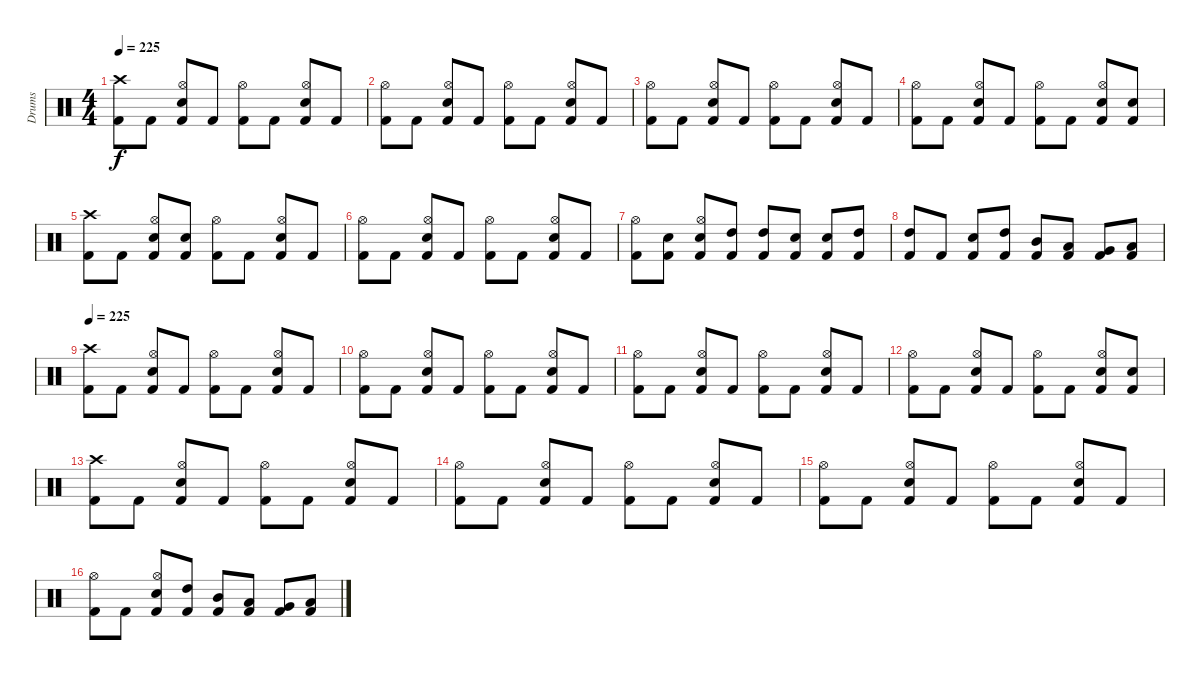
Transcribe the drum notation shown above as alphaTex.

\track ("Drums" "Drums") {instrument percussion}
\staff {score}
\articulation defaults
\ts (4 4)
\tempo 225
\clef neutral
\ks c
("Crash high (hit)" "Kick (hit) 2").8{dy f} "Kick (hit) 2".8 ("Hi-Hat (open)" "Electric Snare (hit)" "Kick (hit) 2").8 "Kick (hit) 2".8 ("Hi-Hat (open)" "Kick (hit) 2").8 "Kick (hit) 2".8 ("Hi-Hat (open)" "Electric Snare (hit)" "Kick (hit) 2").8 "Kick (hit) 2".8 |
("Hi-Hat (open)" "Kick (hit) 2").8 "Kick (hit) 2".8 ("Hi-Hat (open)" "Electric Snare (hit)" "Kick (hit) 2").8 "Kick (hit) 2".8 ("Hi-Hat (open)" "Kick (hit) 2").8 "Kick (hit) 2".8 ("Hi-Hat (open)" "Electric Snare (hit)" "Kick (hit) 2").8 "Kick (hit) 2".8 |
("Hi-Hat (open)" "Kick (hit) 2").8 "Kick (hit) 2".8 ("Hi-Hat (open)" "Electric Snare (hit)" "Kick (hit) 2").8 "Kick (hit) 2".8 ("Hi-Hat (open)" "Kick (hit) 2").8 "Kick (hit) 2".8 ("Hi-Hat (open)" "Electric Snare (hit)" "Kick (hit) 2").8 "Kick (hit) 2".8 |
("Hi-Hat (open)" "Kick (hit) 2").8 "Kick (hit) 2".8 ("Hi-Hat (open)" "Electric Snare (hit)" "Kick (hit) 2").8 "Kick (hit) 2".8 ("Hi-Hat (open)" "Kick (hit) 2").8 "Kick (hit) 2".8 ("Hi-Hat (open)" "Electric Snare (hit)" "Kick (hit) 2").8 ("Electric Snare (hit)" "Kick (hit) 2").8 |
("Crash high (hit)" "Kick (hit) 2").8 "Kick (hit) 2".8 ("Hi-Hat (open)" "Electric Snare (hit)" "Kick (hit) 2").8 ("Electric Snare (hit)" "Kick (hit) 2").8 ("Hi-Hat (open)" "Kick (hit) 2").8 "Kick (hit) 2".8 ("Hi-Hat (open)" "Electric Snare (hit)" "Kick (hit) 2").8 "Kick (hit) 2".8 |
("Hi-Hat (open)" "Kick (hit) 2").8 "Kick (hit) 2".8 ("Hi-Hat (open)" "Electric Snare (hit)" "Kick (hit) 2").8 "Kick (hit) 2".8 ("Hi-Hat (open)" "Kick (hit) 2").8 "Kick (hit) 2".8 ("Hi-Hat (open)" "Electric Snare (hit)" "Kick (hit) 2").8 "Kick (hit) 2".8 |
("Hi-Hat (open)" "Kick (hit) 2").8 ("Electric Snare (hit)" "Kick (hit) 2").8 ("Hi-Hat (open)" "Electric Snare (hit)" "Kick (hit) 2").8 ("High Tom (hit)" "Kick (hit) 2").8 ("High Tom (hit)" "Kick (hit) 2").8 ("Electric Snare (hit)" "Kick (hit) 2").8 ("Electric Snare (hit)" "Kick (hit) 2").8 ("High Tom (hit)" "Kick (hit) 2").8 |
("High Tom (hit)" "Kick (hit) 2").8 "Kick (hit) 2".8 ("Electric Snare (hit)" "Kick (hit) 2").8 ("High Tom (hit)" "Kick (hit) 2").8 ("Mid Tom (hit)" "Kick (hit) 2").8 ("Low Tom (hit)" "Kick (hit) 2").8 ("Very Low Tom (hit)" "Kick (hit) 2").8 ("Low Floor Tom (hit)" "Kick (hit) 2").8 |
\tempo 225
("Crash high (hit)" "Kick (hit) 2").8 "Kick (hit) 2".8 ("Hi-Hat (open)" "Electric Snare (hit)" "Kick (hit) 2").8 "Kick (hit) 2".8 ("Hi-Hat (open)" "Kick (hit) 2").8 "Kick (hit) 2".8 ("Hi-Hat (open)" "Electric Snare (hit)" "Kick (hit) 2").8 "Kick (hit) 2".8 |
("Hi-Hat (open)" "Kick (hit) 2").8 "Kick (hit) 2".8 ("Hi-Hat (open)" "Electric Snare (hit)" "Kick (hit) 2").8 "Kick (hit) 2".8 ("Hi-Hat (open)" "Kick (hit) 2").8 "Kick (hit) 2".8 ("Hi-Hat (open)" "Electric Snare (hit)" "Kick (hit) 2").8 "Kick (hit) 2".8 |
("Hi-Hat (open)" "Kick (hit) 2").8 "Kick (hit) 2".8 ("Hi-Hat (open)" "Electric Snare (hit)" "Kick (hit) 2").8 "Kick (hit) 2".8 ("Hi-Hat (open)" "Kick (hit) 2").8 "Kick (hit) 2".8 ("Hi-Hat (open)" "Electric Snare (hit)" "Kick (hit) 2").8 "Kick (hit) 2".8 |
("Hi-Hat (open)" "Kick (hit) 2").8 "Kick (hit) 2".8 ("Hi-Hat (open)" "Electric Snare (hit)" "Kick (hit) 2").8 "Kick (hit) 2".8 ("Hi-Hat (open)" "Kick (hit) 2").8 "Kick (hit) 2".8 ("Hi-Hat (open)" "Electric Snare (hit)" "Kick (hit) 2").8 ("Electric Snare (hit)" "Kick (hit) 2").8 |
("Crash high (hit)" "Kick (hit) 2").8 "Kick (hit) 2".8 ("Hi-Hat (open)" "Electric Snare (hit)" "Kick (hit) 2").8 "Kick (hit) 2".8 ("Hi-Hat (open)" "Kick (hit) 2").8 "Kick (hit) 2".8 ("Hi-Hat (open)" "Electric Snare (hit)" "Kick (hit) 2").8 "Kick (hit) 2".8 |
("Hi-Hat (open)" "Kick (hit) 2").8 "Kick (hit) 2".8 ("Hi-Hat (open)" "Electric Snare (hit)" "Kick (hit) 2").8 "Kick (hit) 2".8 ("Hi-Hat (open)" "Kick (hit) 2").8 "Kick (hit) 2".8 ("Hi-Hat (open)" "Electric Snare (hit)" "Kick (hit) 2").8 "Kick (hit) 2".8 |
("Hi-Hat (open)" "Kick (hit) 2").8 "Kick (hit) 2".8 ("Hi-Hat (open)" "Electric Snare (hit)" "Kick (hit) 2").8 "Kick (hit) 2".8 ("Hi-Hat (open)" "Kick (hit) 2").8 "Kick (hit) 2".8 ("Hi-Hat (open)" "Electric Snare (hit)" "Kick (hit) 2").8 "Kick (hit) 2".8 |
("Hi-Hat (open)" "Kick (hit) 2").8 "Kick (hit) 2".8 ("Hi-Hat (open)" "Electric Snare (hit)" "Kick (hit) 2").8 ("High Tom (hit)" "Kick (hit) 2").8 ("Mid Tom (hit)" "Kick (hit) 2").8 ("Low Tom (hit)" "Kick (hit) 2").8 ("Very Low Tom (hit)" "Kick (hit) 2").8 ("Low Floor Tom (hit)" "Kick (hit) 2").8
